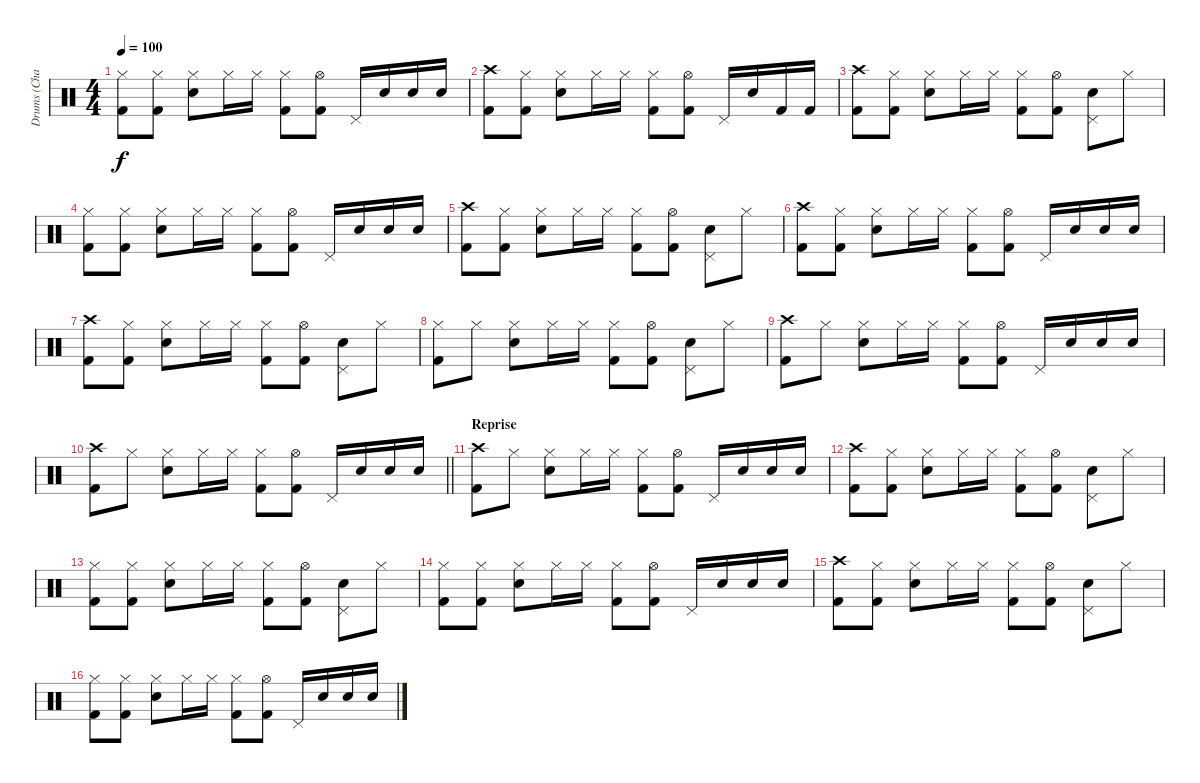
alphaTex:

\track ("Drums (Charlie)" "Drums (Cha") {instrument percussion}
\staff {score}
\articulation defaults
\ts (4 4)
\tempo 100
\clef neutral
\ks c
("Hi-Hat (closed)" "Kick (hit) 2").8{dy f} ("Hi-Hat (closed)" "Kick (hit) 2").8 ("Hi-Hat (closed)" "Electric Snare (hit)").8 "Hi-Hat (closed)".16 "Hi-Hat (closed)".16 ("Hi-Hat (closed)" "Kick (hit) 2").8 ("Hi-Hat (open)" "Kick (hit) 2").8 "Pedal Hi-Hat (hit)".16 "Electric Snare (hit)".16 "Electric Snare (hit)".16 "Electric Snare (hit)".16 |
("Crash high (hit)" "Kick (hit) 2").8 ("Hi-Hat (closed)" "Kick (hit) 2").8 ("Hi-Hat (closed)" "Electric Snare (hit)").8 "Hi-Hat (closed)".16 "Hi-Hat (closed)".16 ("Hi-Hat (closed)" "Kick (hit) 2").8 ("Hi-Hat (open)" "Kick (hit) 2").8 "Pedal Hi-Hat (hit)".16 "Electric Snare (hit)".16 "Kick (hit) 2".16 "Kick (hit) 2".16 |
("Crash high (hit)" "Kick (hit) 2").8 ("Hi-Hat (closed)" "Kick (hit) 2").8 ("Hi-Hat (closed)" "Electric Snare (hit)").8 "Hi-Hat (closed)".16 "Hi-Hat (closed)".16 ("Hi-Hat (closed)" "Kick (hit) 2").8 ("Hi-Hat (open)" "Kick (hit) 2").8 ("Pedal Hi-Hat (hit)" "Electric Snare (hit)").8 "Hi-Hat (closed)".8 |
("Hi-Hat (closed)" "Kick (hit) 2").8 ("Hi-Hat (closed)" "Kick (hit) 2").8 ("Hi-Hat (closed)" "Electric Snare (hit)").8 "Hi-Hat (closed)".16 "Hi-Hat (closed)".16 ("Hi-Hat (closed)" "Kick (hit) 2").8 ("Hi-Hat (open)" "Kick (hit) 2").8 "Pedal Hi-Hat (hit)".16 "Electric Snare (hit)".16 "Electric Snare (hit)".16 "Electric Snare (hit)".16 |
("Crash high (hit)" "Kick (hit) 2").8 ("Hi-Hat (closed)" "Kick (hit) 2").8 ("Hi-Hat (closed)" "Electric Snare (hit)").8 "Hi-Hat (closed)".16 "Hi-Hat (closed)".16 ("Hi-Hat (closed)" "Kick (hit) 2").8 ("Hi-Hat (open)" "Kick (hit) 2").8 ("Pedal Hi-Hat (hit)" "Electric Snare (hit)").8 "Hi-Hat (closed)".8 |
("Crash high (hit)" "Kick (hit) 2").8 ("Hi-Hat (closed)" "Kick (hit) 2").8 ("Hi-Hat (closed)" "Electric Snare (hit)").8 "Hi-Hat (closed)".16 "Hi-Hat (closed)".16 ("Hi-Hat (closed)" "Kick (hit) 2").8 ("Hi-Hat (open)" "Kick (hit) 2").8 "Pedal Hi-Hat (hit)".16 "Electric Snare (hit)".16 "Electric Snare (hit)".16 "Electric Snare (hit)".16 |
("Crash high (hit)" "Kick (hit) 2").8 ("Hi-Hat (closed)" "Kick (hit) 2").8 ("Hi-Hat (closed)" "Electric Snare (hit)").8 "Hi-Hat (closed)".16 "Hi-Hat (closed)".16 ("Hi-Hat (closed)" "Kick (hit) 2").8 ("Hi-Hat (open)" "Kick (hit) 2").8 ("Pedal Hi-Hat (hit)" "Electric Snare (hit)").8 "Hi-Hat (closed)".8 |
("Hi-Hat (closed)" "Kick (hit) 2").8 "Hi-Hat (closed)".8 ("Hi-Hat (closed)" "Electric Snare (hit)").8 "Hi-Hat (closed)".16 "Hi-Hat (closed)".16 ("Hi-Hat (closed)" "Kick (hit) 2").8 ("Hi-Hat (open)" "Kick (hit) 2").8 ("Pedal Hi-Hat (hit)" "Electric Snare (hit)").8 "Hi-Hat (closed)".8 |
("Crash high (hit)" "Kick (hit) 2").8 "Hi-Hat (closed)".8 ("Hi-Hat (closed)" "Electric Snare (hit)").8 "Hi-Hat (closed)".16 "Hi-Hat (closed)".16 ("Hi-Hat (closed)" "Kick (hit) 2").8 ("Hi-Hat (open)" "Kick (hit) 2").8 "Pedal Hi-Hat (hit)".16 "Electric Snare (hit)".16 "Electric Snare (hit)".16 "Electric Snare (hit)".16 |
\barLineRight lightlight
("Crash high (hit)" "Kick (hit) 2").8 "Hi-Hat (closed)".8 ("Hi-Hat (closed)" "Electric Snare (hit)").8 "Hi-Hat (closed)".16 "Hi-Hat (closed)".16 ("Hi-Hat (closed)" "Kick (hit) 2").8 ("Hi-Hat (open)" "Kick (hit) 2").8 "Pedal Hi-Hat (hit)".16 "Electric Snare (hit)".16 "Electric Snare (hit)".16 "Electric Snare (hit)".16 |
\section ("" "Reprise")
("Crash high (hit)" "Kick (hit) 2").8 "Hi-Hat (closed)".8 ("Hi-Hat (closed)" "Electric Snare (hit)").8 "Hi-Hat (closed)".16 "Hi-Hat (closed)".16 ("Hi-Hat (closed)" "Kick (hit) 2").8 ("Hi-Hat (open)" "Kick (hit) 2").8 "Pedal Hi-Hat (hit)".16 "Electric Snare (hit)".16 "Electric Snare (hit)".16 "Electric Snare (hit)".16 |
("Crash high (hit)" "Kick (hit) 2").8 ("Hi-Hat (closed)" "Kick (hit) 2").8 ("Hi-Hat (closed)" "Electric Snare (hit)").8 "Hi-Hat (closed)".16 "Hi-Hat (closed)".16 ("Hi-Hat (closed)" "Kick (hit) 2").8 ("Hi-Hat (open)" "Kick (hit) 2").8 ("Pedal Hi-Hat (hit)" "Electric Snare (hit)").8 "Hi-Hat (closed)".8 |
("Hi-Hat (closed)" "Kick (hit) 2").8 ("Hi-Hat (closed)" "Kick (hit) 2").8 ("Hi-Hat (closed)" "Electric Snare (hit)").8 "Hi-Hat (closed)".16 "Hi-Hat (closed)".16 ("Hi-Hat (closed)" "Kick (hit) 2").8 ("Hi-Hat (open)" "Kick (hit) 2").8 ("Pedal Hi-Hat (hit)" "Electric Snare (hit)").8 "Hi-Hat (closed)".8 |
("Hi-Hat (closed)" "Kick (hit) 2").8 ("Hi-Hat (closed)" "Kick (hit) 2").8 ("Hi-Hat (closed)" "Electric Snare (hit)").8 "Hi-Hat (closed)".16 "Hi-Hat (closed)".16 ("Hi-Hat (closed)" "Kick (hit) 2").8 ("Hi-Hat (open)" "Kick (hit) 2").8 "Pedal Hi-Hat (hit)".16 "Electric Snare (hit)".16 "Electric Snare (hit)".16 "Electric Snare (hit)".16 |
("Crash high (hit)" "Kick (hit) 2").8 ("Hi-Hat (closed)" "Kick (hit) 2").8 ("Hi-Hat (closed)" "Electric Snare (hit)").8 "Hi-Hat (closed)".16 "Hi-Hat (closed)".16 ("Hi-Hat (closed)" "Kick (hit) 2").8 ("Hi-Hat (open)" "Kick (hit) 2").8 ("Pedal Hi-Hat (hit)" "Electric Snare (hit)").8 "Hi-Hat (closed)".8 |
("Hi-Hat (closed)" "Kick (hit) 2").8 ("Hi-Hat (closed)" "Kick (hit) 2").8 ("Hi-Hat (closed)" "Electric Snare (hit)").8 "Hi-Hat (closed)".16 "Hi-Hat (closed)".16 ("Hi-Hat (closed)" "Kick (hit) 2").8 ("Hi-Hat (open)" "Kick (hit) 2").8 "Pedal Hi-Hat (hit)".16 "Electric Snare (hit)".16 "Electric Snare (hit)".16 "Electric Snare (hit)".16
